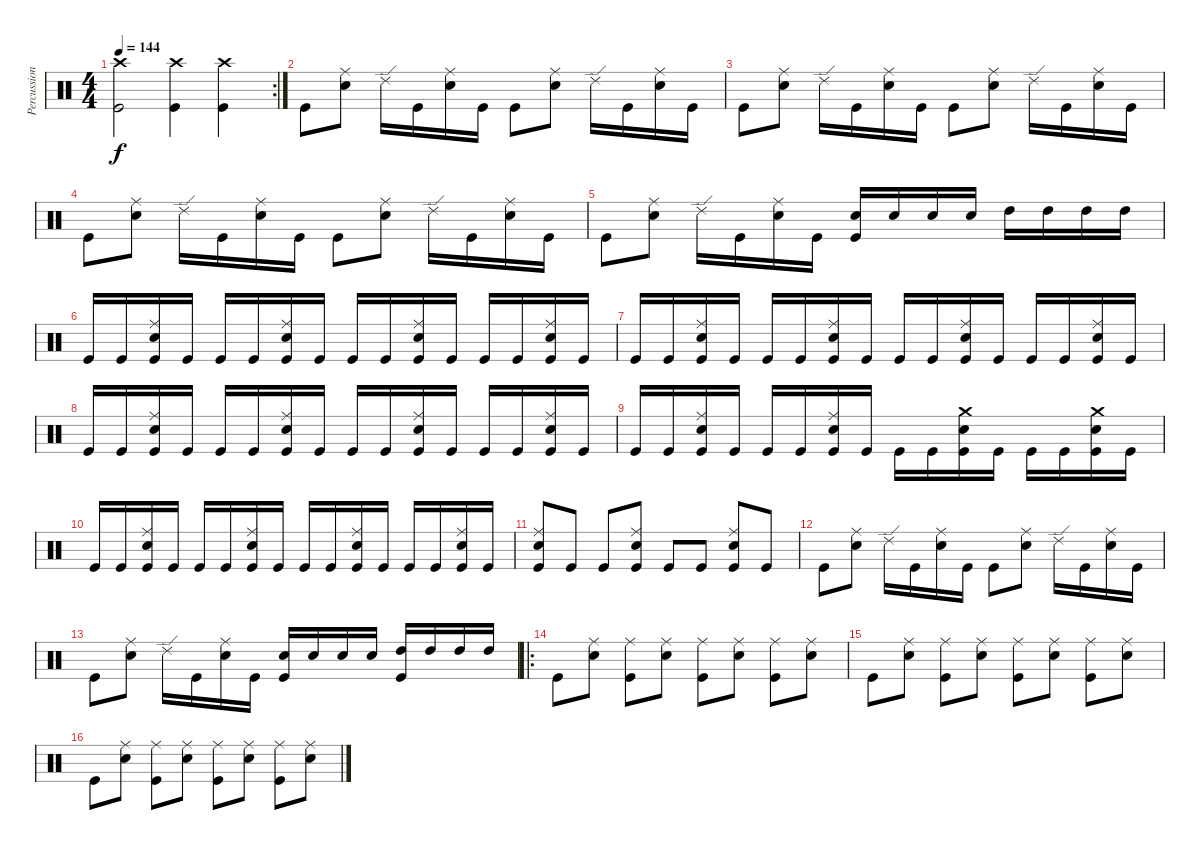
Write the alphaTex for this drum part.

\track ("Percussion" "Percussion") {instrument percussion}
\staff {score}
\articulation defaults
\rc 2
\ts (4 4)
\tempo 144
\clef neutral
\ks c
("Crash high (hit)" "Kick (hit)").2{dy f} ("Crash high (hit)" "Kick (hit)").4 ("Crash high (hit)" "Kick (hit)").4 |
"Kick (hit)".8 ("Ride (middle)" "Snare (hit) 2").8 "Ride (edge) 2".16 "Kick (hit)".16 ("Ride (middle)" "Snare (hit) 2").16 "Kick (hit)".16 "Kick (hit)".8 ("Ride (middle)" "Snare (hit) 2").8 "Ride (edge) 2".16 "Kick (hit)".16 ("Ride (middle)" "Snare (hit) 2").16 "Kick (hit)".16 |
"Kick (hit)".8 ("Ride (middle)" "Snare (hit) 2").8 "Ride (edge) 2".16 "Kick (hit)".16 ("Ride (middle)" "Snare (hit) 2").16 "Kick (hit)".16 "Kick (hit)".8 ("Ride (middle)" "Snare (hit) 2").8 "Ride (edge) 2".16 "Kick (hit)".16 ("Ride (middle)" "Snare (hit) 2").16 "Kick (hit)".16 |
"Kick (hit)".8 ("Ride (middle)" "Snare (hit) 2").8 "Ride (edge) 2".16 "Kick (hit)".16 ("Ride (middle)" "Snare (hit) 2").16 "Kick (hit)".16 "Kick (hit)".8 ("Ride (middle)" "Snare (hit) 2").8 "Ride (edge) 2".16 "Kick (hit)".16 ("Ride (middle)" "Snare (hit) 2").16 "Kick (hit)".16 |
"Kick (hit)".8 ("Ride (middle)" "Snare (hit) 2").8 "Ride (edge) 2".16 "Kick (hit)".16 ("Ride (middle)" "Snare (hit) 2").16 "Kick (hit)".16 ("Snare (hit) 2" "Kick (hit)").16 "Snare (hit) 2".16 "Snare (hit) 2".16 "Snare (hit) 2".16 "High Tom (hit)".16 "High Tom (hit)".16 "High Tom (hit)".16 "High Tom (hit)".16 |
"Kick (hit)".16 "Kick (hit)".16 ("Ride (middle)" "Snare (hit) 2" "Kick (hit)").16 "Kick (hit)".16 "Kick (hit)".16 "Kick (hit)".16 ("Ride (middle)" "Snare (hit) 2" "Kick (hit)").16 "Kick (hit)".16 "Kick (hit)".16 "Kick (hit)".16 ("Ride (middle)" "Snare (hit) 2" "Kick (hit)").16 "Kick (hit)".16 "Kick (hit)".16 "Kick (hit)".16 ("Ride (middle)" "Snare (hit) 2" "Kick (hit)").16 "Kick (hit)".16 |
"Kick (hit)".16 "Kick (hit)".16 ("Ride (middle)" "Snare (hit) 2" "Kick (hit)").16 "Kick (hit)".16 "Kick (hit)".16 "Kick (hit)".16 ("Ride (middle)" "Snare (hit) 2" "Kick (hit)").16 "Kick (hit)".16 "Kick (hit)".16 "Kick (hit)".16 ("Ride (middle)" "Snare (hit) 2" "Kick (hit)").16 "Kick (hit)".16 "Kick (hit)".16 "Kick (hit)".16 ("Ride (middle)" "Snare (hit) 2" "Kick (hit)").16 "Kick (hit)".16 |
"Kick (hit)".16 "Kick (hit)".16 ("Ride (middle)" "Snare (hit) 2" "Kick (hit)").16 "Kick (hit)".16 "Kick (hit)".16 "Kick (hit)".16 ("Ride (middle)" "Snare (hit) 2" "Kick (hit)").16 "Kick (hit)".16 "Kick (hit)".16 "Kick (hit)".16 ("Ride (middle)" "Snare (hit) 2" "Kick (hit)").16 "Kick (hit)".16 "Kick (hit)".16 "Kick (hit)".16 ("Ride (middle)" "Snare (hit) 2" "Kick (hit)").16 "Kick (hit)".16 |
"Kick (hit)".16 "Kick (hit)".16 ("Ride (middle)" "Snare (hit) 2" "Kick (hit)").16 "Kick (hit)".16 "Kick (hit)".16 "Kick (hit)".16 ("Ride (middle)" "Snare (hit) 2" "Kick (hit)").16 "Kick (hit)".16 "Kick (hit)".16 "Kick (hit)".16 ("Crash medium (hit)" "Snare (hit) 2" "Kick (hit)").16 "Kick (hit)".16 "Kick (hit)".16 "Kick (hit)".16 ("Crash medium (hit)" "Snare (hit) 2" "Kick (hit)").16 "Kick (hit)".16 |
"Kick (hit)".16 "Kick (hit)".16 ("Ride (middle)" "Snare (hit) 2" "Kick (hit)").16 "Kick (hit)".16 "Kick (hit)".16 "Kick (hit)".16 ("Ride (middle)" "Snare (hit) 2" "Kick (hit)").16 "Kick (hit)".16 "Kick (hit)".16 "Kick (hit)".16 ("Ride (middle)" "Snare (hit) 2" "Kick (hit)").16 "Kick (hit)".16 "Kick (hit)".16 "Kick (hit)".16 ("Ride (middle)" "Snare (hit) 2" "Kick (hit)").16 "Kick (hit)".16 |
("Ride (middle)" "Snare (hit) 2" "Kick (hit)").8 "Kick (hit)".8 "Kick (hit)".8 ("Ride (middle)" "Snare (hit) 2" "Kick (hit)").8 "Kick (hit)".8 "Kick (hit)".8 ("Ride (middle)" "Snare (hit) 2" "Kick (hit)").8 "Kick (hit)".8 |
"Kick (hit)".8 ("Ride (middle)" "Snare (hit) 2").8 "Ride (edge) 2".16 "Kick (hit)".16 ("Ride (middle)" "Snare (hit) 2").16 "Kick (hit)".16 "Kick (hit)".8 ("Ride (middle)" "Snare (hit) 2").8 "Ride (edge) 2".16 "Kick (hit)".16 ("Ride (middle)" "Snare (hit) 2").16 "Kick (hit)".16 |
"Kick (hit)".8 ("Ride (middle)" "Snare (hit) 2").8 "Ride (edge) 2".16 "Kick (hit)".16 ("Ride (middle)" "Snare (hit) 2").16 "Kick (hit)".16 ("Snare (hit) 2" "Kick (hit)").16 "Snare (hit) 2".16 "Snare (hit) 2".16 "Snare (hit) 2".16 ("High Tom (hit)" "Kick (hit)").16 "High Tom (hit)".16 "High Tom (hit)".16 "High Tom (hit)".16 |
\ro "Kick (hit)".8
("Ride (middle)" "Snare (hit) 2").8 ("Ride (middle)" "Kick (hit)").8 ("Ride (middle)" "Snare (hit) 2").8 ("Ride (middle)" "Kick (hit)").8 ("Ride (middle)" "Snare (hit) 2").8 ("Ride (middle)" "Kick (hit)").8 ("Ride (middle)" "Snare (hit) 2").8 |
"Kick (hit)".8 ("Ride (middle)" "Snare (hit) 2").8 ("Ride (middle)" "Kick (hit)").8 ("Ride (middle)" "Snare (hit) 2").8 ("Ride (middle)" "Kick (hit)").8 ("Ride (middle)" "Snare (hit) 2").8 ("Ride (middle)" "Kick (hit)").8 ("Ride (middle)" "Snare (hit) 2").8 |
"Kick (hit)".8 ("Ride (middle)" "Snare (hit) 2").8 ("Ride (middle)" "Kick (hit)").8 ("Ride (middle)" "Snare (hit) 2").8 ("Ride (middle)" "Kick (hit)").8 ("Ride (middle)" "Snare (hit) 2").8 ("Ride (middle)" "Kick (hit)").8 ("Ride (middle)" "Snare (hit) 2").8
